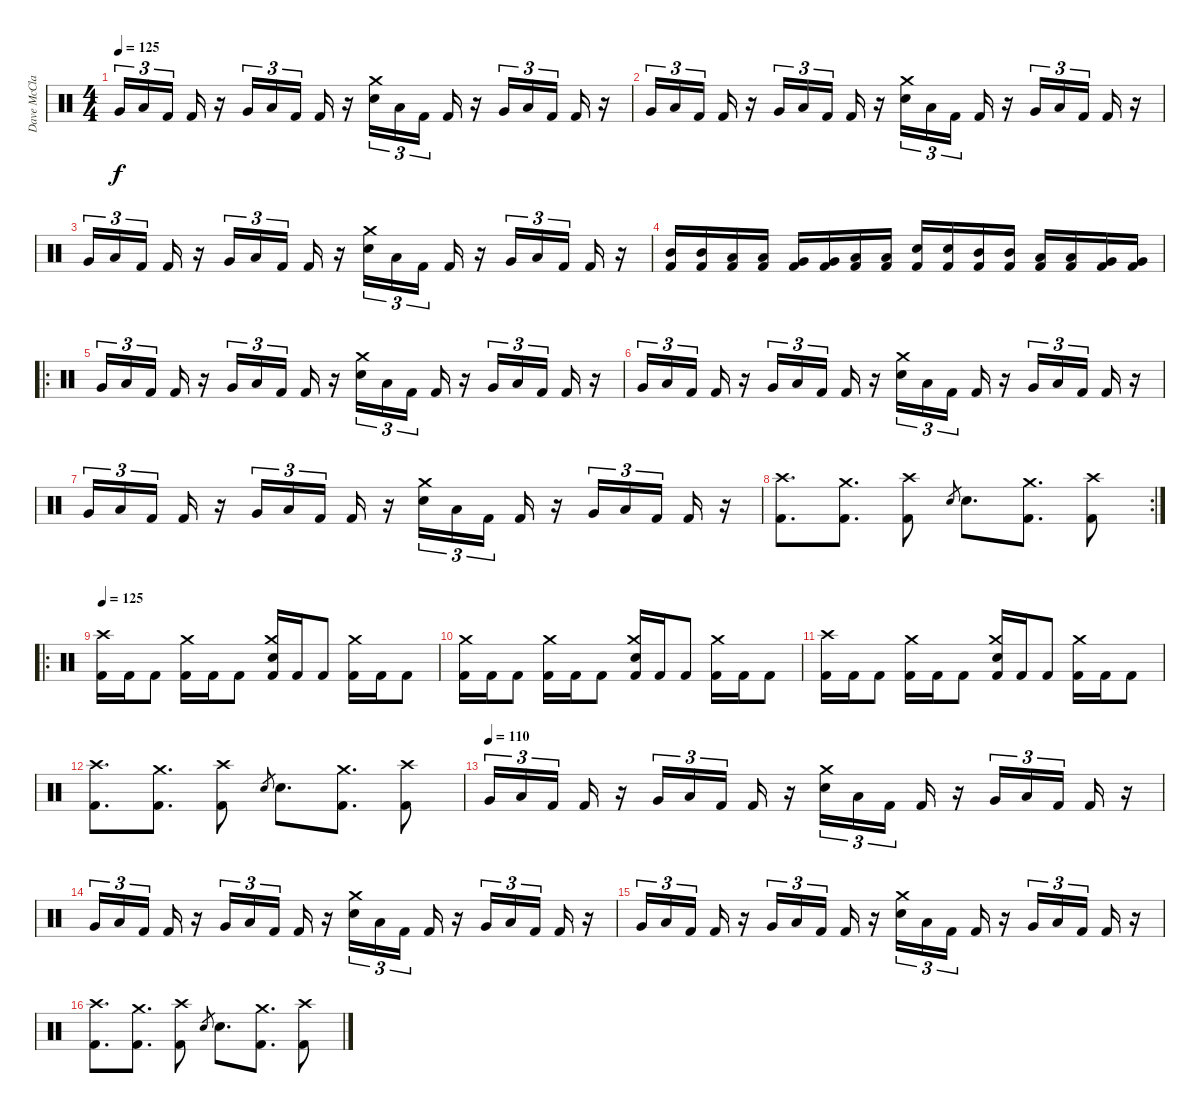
\track ("Dave McClain" "Dave McCla") {instrument percussion}
\staff {score}
\articulation defaults
\ts (4 4)
\tempo 125
\clef neutral
\ks c "Very Low Tom (hit)".16{tu (3 2) dy f} "Low Floor Tom (hit)".16{tu (3 2)} "Kick (hit) 2".16{tu (3 2)} "Kick (hit) 2".16
r.16 "Very Low Tom (hit)".16{tu (3 2)} "Low Floor Tom (hit)".16{tu (3 2)} "Kick (hit) 2".16{tu (3 2)} "Kick (hit) 2".16 r.16 ("Crash medium (hit)" "Snare (hit) 2").16{tu (3 2)} "Low Floor Tom (hit)".16{tu (3 2)} "Kick (hit) 2".16{tu (3 2)} "Kick (hit) 2".16 r.16 "Very Low Tom (hit)".16{tu (3 2)} "Low Floor Tom (hit)".16{tu (3 2)} "Kick (hit) 2".16{tu (3 2)} "Kick (hit) 2".16 r.16 |
"Very Low Tom (hit)".16{tu (3 2)} "Low Floor Tom (hit)".16{tu (3 2)} "Kick (hit) 2".16{tu (3 2)} "Kick (hit) 2".16 r.16 "Very Low Tom (hit)".16{tu (3 2)} "Low Floor Tom (hit)".16{tu (3 2)} "Kick (hit) 2".16{tu (3 2)} "Kick (hit) 2".16 r.16 ("Crash medium (hit)" "Snare (hit) 2").16{tu (3 2)} "Low Floor Tom (hit)".16{tu (3 2)} "Kick (hit) 2".16{tu (3 2)} "Kick (hit) 2".16 r.16 "Very Low Tom (hit)".16{tu (3 2)} "Low Floor Tom (hit)".16{tu (3 2)} "Kick (hit) 2".16{tu (3 2)} "Kick (hit) 2".16 r.16 |
"Very Low Tom (hit)".16{tu (3 2)} "Low Floor Tom (hit)".16{tu (3 2)} "Kick (hit) 2".16{tu (3 2)} "Kick (hit) 2".16 r.16 "Very Low Tom (hit)".16{tu (3 2)} "Low Floor Tom (hit)".16{tu (3 2)} "Kick (hit) 2".16{tu (3 2)} "Kick (hit) 2".16 r.16 ("Crash medium (hit)" "Snare (hit) 2").16{tu (3 2)} "Low Floor Tom (hit)".16{tu (3 2)} "Kick (hit) 2".16{tu (3 2)} "Kick (hit) 2".16 r.16 "Very Low Tom (hit)".16{tu (3 2)} "Low Floor Tom (hit)".16{tu (3 2)} "Kick (hit) 2".16{tu (3 2)} "Kick (hit) 2".16 r.16 |
("Kick (hit) 2" "Mid Tom (hit)").16 ("Kick (hit) 2" "Mid Tom (hit)").16 ("Kick (hit) 2" "Low Tom (hit)").16 ("Kick (hit) 2" "Low Tom (hit)").16 ("Kick (hit) 2" "Very Low Tom (hit)").16 ("Kick (hit) 2" "Very Low Tom (hit)").16 ("Kick (hit) 2" "Low Floor Tom (hit)").16 ("Kick (hit) 2" "Low Floor Tom (hit)").16 ("Kick (hit) 2" "Snare (hit) 2").16 ("Kick (hit) 2" "Snare (hit) 2").16 ("Kick (hit) 2" "Mid Tom (hit)").16 ("Kick (hit) 2" "Mid Tom (hit)").16 ("Kick (hit) 2" "Low Tom (hit)").16 ("Kick (hit) 2" "Low Tom (hit)").16 ("Kick (hit) 2" "Very Low Tom (hit)").16 ("Kick (hit) 2" "Very Low Tom (hit)").16 |
\ro "Very Low Tom (hit)".16{tu (3 2)} "Low Floor Tom (hit)".16{tu (3 2)} "Kick (hit) 2".16{tu (3 2)} "Kick (hit) 2".16
r.16 "Very Low Tom (hit)".16{tu (3 2)} "Low Floor Tom (hit)".16{tu (3 2)} "Kick (hit) 2".16{tu (3 2)} "Kick (hit) 2".16 r.16 ("Crash medium (hit)" "Snare (hit) 2").16{tu (3 2)} "Low Floor Tom (hit)".16{tu (3 2)} "Kick (hit) 2".16{tu (3 2)} "Kick (hit) 2".16 r.16 "Very Low Tom (hit)".16{tu (3 2)} "Low Floor Tom (hit)".16{tu (3 2)} "Kick (hit) 2".16{tu (3 2)} "Kick (hit) 2".16 r.16 |
"Very Low Tom (hit)".16{tu (3 2)} "Low Floor Tom (hit)".16{tu (3 2)} "Kick (hit) 2".16{tu (3 2)} "Kick (hit) 2".16 r.16 "Very Low Tom (hit)".16{tu (3 2)} "Low Floor Tom (hit)".16{tu (3 2)} "Kick (hit) 2".16{tu (3 2)} "Kick (hit) 2".16 r.16 ("Crash medium (hit)" "Snare (hit) 2").16{tu (3 2)} "Low Floor Tom (hit)".16{tu (3 2)} "Kick (hit) 2".16{tu (3 2)} "Kick (hit) 2".16 r.16 "Very Low Tom (hit)".16{tu (3 2)} "Low Floor Tom (hit)".16{tu (3 2)} "Kick (hit) 2".16{tu (3 2)} "Kick (hit) 2".16 r.16 |
"Very Low Tom (hit)".16{tu (3 2)} "Low Floor Tom (hit)".16{tu (3 2)} "Kick (hit) 2".16{tu (3 2)} "Kick (hit) 2".16 r.16 "Very Low Tom (hit)".16{tu (3 2)} "Low Floor Tom (hit)".16{tu (3 2)} "Kick (hit) 2".16{tu (3 2)} "Kick (hit) 2".16 r.16 ("Crash medium (hit)" "Snare (hit) 2").16{tu (3 2)} "Low Floor Tom (hit)".16{tu (3 2)} "Kick (hit) 2".16{tu (3 2)} "Kick (hit) 2".16 r.16 "Very Low Tom (hit)".16{tu (3 2)} "Low Floor Tom (hit)".16{tu (3 2)} "Kick (hit) 2".16{tu (3 2)} "Kick (hit) 2".16 r.16 |
\rc 2
("Crash high (hit)" "Kick (hit) 2").8{d} ("Crash medium (hit)" "Kick (hit) 2").8{d} ("Crash high (hit)" "Kick (hit) 2").8 "Snare (hit) 2".8{gr} "Snare (hit) 2".8{d} ("Crash medium (hit)" "Kick (hit) 2").8{d} ("Crash high (hit)" "Kick (hit) 2").8 |
\ro
\tempo 125
("Crash high (hit)" "Kick (hit) 2").16 "Kick (hit) 2".16 "Kick (hit) 2".8 ("Crash medium (hit)" "Kick (hit) 2").16 "Kick (hit) 2".16 "Kick (hit) 2".8 ("Crash medium (hit)" "Electric Snare (hit)" "Kick (hit) 2").16 "Kick (hit) 2".16 "Kick (hit) 2".8 ("Crash medium (hit)" "Kick (hit) 2").16 "Kick (hit) 2".16 "Kick (hit) 2".8 |
("Crash medium (hit)" "Kick (hit) 2").16 "Kick (hit) 2".16 "Kick (hit) 2".8 ("Crash medium (hit)" "Kick (hit) 2").16 "Kick (hit) 2".16 "Kick (hit) 2".8 ("Crash medium (hit)" "Electric Snare (hit)" "Kick (hit) 2").16 "Kick (hit) 2".16 "Kick (hit) 2".8 ("Crash medium (hit)" "Kick (hit) 2").16 "Kick (hit) 2".16 "Kick (hit) 2".8 |
("Crash high (hit)" "Kick (hit) 2").16 "Kick (hit) 2".16 "Kick (hit) 2".8 ("Crash medium (hit)" "Kick (hit) 2").16 "Kick (hit) 2".16 "Kick (hit) 2".8 ("Crash medium (hit)" "Electric Snare (hit)" "Kick (hit) 2").16 "Kick (hit) 2".16 "Kick (hit) 2".8 ("Crash medium (hit)" "Kick (hit) 2").16 "Kick (hit) 2".16 "Kick (hit) 2".8 |
("Crash high (hit)" "Kick (hit) 2").8{d} ("Crash medium (hit)" "Kick (hit) 2").8{d} ("Crash high (hit)" "Kick (hit) 2").8 "Snare (hit) 2".8{gr} "Snare (hit) 2".8{d} ("Crash medium (hit)" "Kick (hit) 2").8{d} ("Crash high (hit)" "Kick (hit) 2").8 |
\tempo (110)
"Very Low Tom (hit)".16{tu (3 2)} "Low Floor Tom (hit)".16{tu (3 2)} "Kick (hit) 2".16{tu (3 2)} "Kick (hit) 2".16 r.16 "Very Low Tom (hit)".16{tu (3 2)} "Low Floor Tom (hit)".16{tu (3 2)} "Kick (hit) 2".16{tu (3 2)} "Kick (hit) 2".16 r.16 ("Crash medium (hit)" "Snare (hit) 2").16{tu (3 2)} "Low Floor Tom (hit)".16{tu (3 2)} "Kick (hit) 2".16{tu (3 2)} "Kick (hit) 2".16 r.16 "Very Low Tom (hit)".16{tu (3 2)} "Low Floor Tom (hit)".16{tu (3 2)} "Kick (hit) 2".16{tu (3 2)} "Kick (hit) 2".16 r.16 |
"Very Low Tom (hit)".16{tu (3 2)} "Low Floor Tom (hit)".16{tu (3 2)} "Kick (hit) 2".16{tu (3 2)} "Kick (hit) 2".16 r.16 "Very Low Tom (hit)".16{tu (3 2)} "Low Floor Tom (hit)".16{tu (3 2)} "Kick (hit) 2".16{tu (3 2)} "Kick (hit) 2".16 r.16 ("Crash medium (hit)" "Snare (hit) 2").16{tu (3 2)} "Low Floor Tom (hit)".16{tu (3 2)} "Kick (hit) 2".16{tu (3 2)} "Kick (hit) 2".16 r.16 "Very Low Tom (hit)".16{tu (3 2)} "Low Floor Tom (hit)".16{tu (3 2)} "Kick (hit) 2".16{tu (3 2)} "Kick (hit) 2".16 r.16 |
"Very Low Tom (hit)".16{tu (3 2)} "Low Floor Tom (hit)".16{tu (3 2)} "Kick (hit) 2".16{tu (3 2)} "Kick (hit) 2".16 r.16 "Very Low Tom (hit)".16{tu (3 2)} "Low Floor Tom (hit)".16{tu (3 2)} "Kick (hit) 2".16{tu (3 2)} "Kick (hit) 2".16 r.16 ("Crash medium (hit)" "Snare (hit) 2").16{tu (3 2)} "Low Floor Tom (hit)".16{tu (3 2)} "Kick (hit) 2".16{tu (3 2)} "Kick (hit) 2".16 r.16 "Very Low Tom (hit)".16{tu (3 2)} "Low Floor Tom (hit)".16{tu (3 2)} "Kick (hit) 2".16{tu (3 2)} "Kick (hit) 2".16 r.16 |
("Crash high (hit)" "Kick (hit) 2").8{d} ("Crash medium (hit)" "Kick (hit) 2").8{d} ("Crash high (hit)" "Kick (hit) 2").8 "Snare (hit) 2".8{gr} "Snare (hit) 2".8{d} ("Crash medium (hit)" "Kick (hit) 2").8{d} ("Crash high (hit)" "Kick (hit) 2").8
